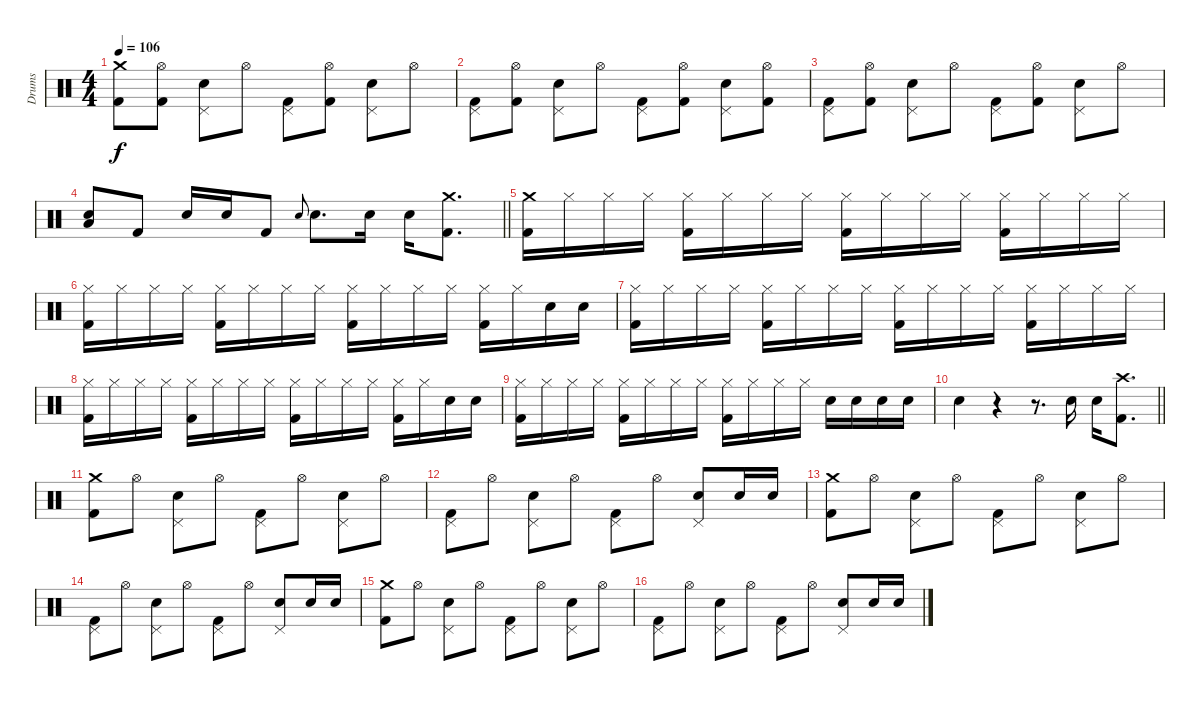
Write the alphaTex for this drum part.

\track ("Drums" "Drums") {instrument percussion}
\staff {score}
\articulation defaults
\ts (4 4)
\tempo 106
\clef neutral
\ks c
("Crash medium (hit)" "Kick (hit) 2").8{dy f} ("Hi-Hat (open)" "Kick (hit) 2").8 ("Pedal Hi-Hat (hit)" "Electric Snare (hit)").8 "Hi-Hat (open)".8 ("Pedal Hi-Hat (hit)" "Kick (hit) 2").8 ("Hi-Hat (open)" "Kick (hit) 2").8 ("Pedal Hi-Hat (hit)" "Electric Snare (hit)").8 "Hi-Hat (open)".8 |
("Pedal Hi-Hat (hit)" "Kick (hit) 2").8 ("Hi-Hat (open)" "Kick (hit) 2").8 ("Pedal Hi-Hat (hit)" "Electric Snare (hit)").8 "Hi-Hat (open)".8 ("Pedal Hi-Hat (hit)" "Kick (hit) 2").8 ("Hi-Hat (open)" "Kick (hit) 2").8 ("Pedal Hi-Hat (hit)" "Electric Snare (hit)").8 ("Hi-Hat (open)" "Kick (hit) 2").8 |
("Pedal Hi-Hat (hit)" "Kick (hit) 2").8 ("Hi-Hat (open)" "Kick (hit) 2").8 ("Pedal Hi-Hat (hit)" "Electric Snare (hit)").8 "Hi-Hat (open)".8 ("Pedal Hi-Hat (hit)" "Kick (hit) 2").8 ("Hi-Hat (open)" "Kick (hit) 2").8 ("Pedal Hi-Hat (hit)" "Electric Snare (hit)").8 "Hi-Hat (open)".8 |
\barLineRight lightlight
("Electric Snare (hit)" "Low Floor Tom (hit)").8 "Kick (hit) 2".8 "Electric Snare (hit)".16 "Electric Snare (hit)".16 "Kick (hit) 2".8 "Electric Snare (hit)".8{gr onbeat} "Electric Snare (hit)".8{d} "Electric Snare (hit)".16 "Electric Snare (hit)".16 ("Crash medium (hit)" "Kick (hit) 2").8{d} |
("Crash medium (hit)" "Kick (hit) 2").16 "Hi-Hat (closed)".16 "Hi-Hat (closed)".16 "Hi-Hat (closed)".16 ("Hi-Hat (closed)" "Kick (hit) 2").16 "Hi-Hat (closed)".16 "Hi-Hat (closed)".16 "Hi-Hat (closed)".16 ("Hi-Hat (closed)" "Kick (hit) 2").16 "Hi-Hat (closed)".16 "Hi-Hat (closed)".16 "Hi-Hat (closed)".16 ("Hi-Hat (closed)" "Kick (hit) 2").16 "Hi-Hat (closed)".16 "Hi-Hat (closed)".16 "Hi-Hat (closed)".16 |
("Hi-Hat (closed)" "Kick (hit) 2").16 "Hi-Hat (closed)".16 "Hi-Hat (closed)".16 "Hi-Hat (closed)".16 ("Hi-Hat (closed)" "Kick (hit) 2").16 "Hi-Hat (closed)".16 "Hi-Hat (closed)".16 "Hi-Hat (closed)".16 ("Hi-Hat (closed)" "Kick (hit) 2").16 "Hi-Hat (closed)".16 "Hi-Hat (closed)".16 "Hi-Hat (closed)".16 ("Hi-Hat (closed)" "Kick (hit) 2").16 "Hi-Hat (closed)".16 "Electric Snare (hit)".16 "Electric Snare (hit)".16 |
("Hi-Hat (closed)" "Kick (hit) 2").16 "Hi-Hat (closed)".16 "Hi-Hat (closed)".16 "Hi-Hat (closed)".16 ("Hi-Hat (closed)" "Kick (hit) 2").16 "Hi-Hat (closed)".16 "Hi-Hat (closed)".16 "Hi-Hat (closed)".16 ("Hi-Hat (closed)" "Kick (hit) 2").16 "Hi-Hat (closed)".16 "Hi-Hat (closed)".16 "Hi-Hat (closed)".16 ("Hi-Hat (closed)" "Kick (hit) 2").16 "Hi-Hat (closed)".16 "Hi-Hat (closed)".16 "Hi-Hat (closed)".16 |
("Hi-Hat (closed)" "Kick (hit) 2").16 "Hi-Hat (closed)".16 "Hi-Hat (closed)".16 "Hi-Hat (closed)".16 ("Hi-Hat (closed)" "Kick (hit) 2").16 "Hi-Hat (closed)".16 "Hi-Hat (closed)".16 "Hi-Hat (closed)".16 ("Hi-Hat (closed)" "Kick (hit) 2").16 "Hi-Hat (closed)".16 "Hi-Hat (closed)".16 "Hi-Hat (closed)".16 ("Hi-Hat (closed)" "Kick (hit) 2").16 "Hi-Hat (closed)".16 "Electric Snare (hit)".16 "Electric Snare (hit)".16 |
("Hi-Hat (closed)" "Kick (hit) 2").16 "Hi-Hat (closed)".16 "Hi-Hat (closed)".16 "Hi-Hat (closed)".16 ("Hi-Hat (closed)" "Kick (hit) 2").16 "Hi-Hat (closed)".16 "Hi-Hat (closed)".16 "Hi-Hat (closed)".16 ("Hi-Hat (closed)" "Kick (hit) 2").16 "Hi-Hat (closed)".16 "Hi-Hat (closed)".16 "Hi-Hat (closed)".16 "Electric Snare (hit)".16 "Electric Snare (hit)".16 "Electric Snare (hit)".16 "Electric Snare (hit)".16 |
\barLineRight lightlight "Electric Snare (hit)".4
r.4 r.8{d} "Electric Snare (hit)".16 "Electric Snare (hit)".16 ("Crash high (hit)" "Kick (hit) 2").8{d} |
("Crash medium (hit)" "Kick (hit) 2").8 "Hi-Hat (open)".8 ("Pedal Hi-Hat (hit)" "Electric Snare (hit)").8 "Hi-Hat (open)".8 ("Pedal Hi-Hat (hit)" "Kick (hit) 2").8 "Hi-Hat (open)".8 ("Pedal Hi-Hat (hit)" "Electric Snare (hit)").8 "Hi-Hat (open)".8 |
("Pedal Hi-Hat (hit)" "Kick (hit) 2").8 "Hi-Hat (open)".8 ("Pedal Hi-Hat (hit)" "Electric Snare (hit)").8 "Hi-Hat (open)".8 ("Pedal Hi-Hat (hit)" "Kick (hit) 2").8 "Hi-Hat (open)".8 ("Pedal Hi-Hat (hit)" "Electric Snare (hit)").8 "Electric Snare (hit)".16 "Electric Snare (hit)".16 |
("Crash medium (hit)" "Kick (hit) 2").8 "Hi-Hat (open)".8 ("Pedal Hi-Hat (hit)" "Electric Snare (hit)").8 "Hi-Hat (open)".8 ("Pedal Hi-Hat (hit)" "Kick (hit) 2").8 "Hi-Hat (open)".8 ("Pedal Hi-Hat (hit)" "Electric Snare (hit)").8 "Hi-Hat (open)".8 |
("Pedal Hi-Hat (hit)" "Kick (hit) 2").8 "Hi-Hat (open)".8 ("Pedal Hi-Hat (hit)" "Electric Snare (hit)").8 "Hi-Hat (open)".8 ("Pedal Hi-Hat (hit)" "Kick (hit) 2").8 "Hi-Hat (open)".8 ("Pedal Hi-Hat (hit)" "Electric Snare (hit)").8 "Electric Snare (hit)".16 "Electric Snare (hit)".16 |
("Crash medium (hit)" "Kick (hit) 2").8 "Hi-Hat (open)".8 ("Pedal Hi-Hat (hit)" "Electric Snare (hit)").8 "Hi-Hat (open)".8 ("Pedal Hi-Hat (hit)" "Kick (hit) 2").8 "Hi-Hat (open)".8 ("Pedal Hi-Hat (hit)" "Electric Snare (hit)").8 "Hi-Hat (open)".8 |
("Pedal Hi-Hat (hit)" "Kick (hit) 2").8 "Hi-Hat (open)".8 ("Pedal Hi-Hat (hit)" "Electric Snare (hit)").8 "Hi-Hat (open)".8 ("Pedal Hi-Hat (hit)" "Kick (hit) 2").8 "Hi-Hat (open)".8 ("Pedal Hi-Hat (hit)" "Electric Snare (hit)").8 "Electric Snare (hit)".16 "Electric Snare (hit)".16
